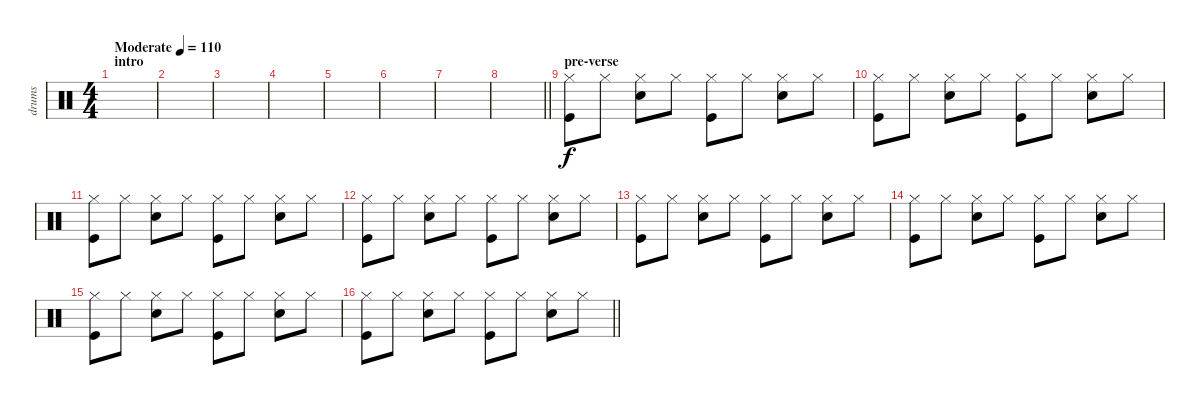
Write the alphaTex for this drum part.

\track ("drums" "drums") {instrument percussion}
\staff {score}
\articulation defaults
\ts (4 4)
\section ("" "intro")
\tempo (110 "Moderate")
\clef neutral
\ks c
|
|
|
|
|
|
|
\barLineRight lightlight
|
\section ("" "pre-verse")
("Hi-Hat (closed)" "Kick (hit)").8 "Hi-Hat (closed)".8 ("Hi-Hat (closed)" "Snare (hit) 2").8 "Hi-Hat (closed)".8 ("Hi-Hat (closed)" "Kick (hit)").8 "Hi-Hat (closed)".8 ("Hi-Hat (closed)" "Snare (hit) 2").8 "Hi-Hat (closed)".8 |
("Hi-Hat (closed)" "Kick (hit)").8 "Hi-Hat (closed)".8 ("Hi-Hat (closed)" "Snare (hit) 2").8 "Hi-Hat (closed)".8 ("Hi-Hat (closed)" "Kick (hit)").8 "Hi-Hat (closed)".8 ("Hi-Hat (closed)" "Snare (hit) 2").8 "Hi-Hat (closed)".8 |
("Hi-Hat (closed)" "Kick (hit)").8 "Hi-Hat (closed)".8 ("Hi-Hat (closed)" "Snare (hit) 2").8 "Hi-Hat (closed)".8 ("Hi-Hat (closed)" "Kick (hit)").8 "Hi-Hat (closed)".8 ("Hi-Hat (closed)" "Snare (hit) 2").8 "Hi-Hat (closed)".8 |
("Hi-Hat (closed)" "Kick (hit)").8 "Hi-Hat (closed)".8 ("Hi-Hat (closed)" "Snare (hit) 2").8 "Hi-Hat (closed)".8 ("Hi-Hat (closed)" "Kick (hit)").8 "Hi-Hat (closed)".8 ("Hi-Hat (closed)" "Snare (hit) 2").8 "Hi-Hat (closed)".8 |
("Hi-Hat (closed)" "Kick (hit)").8 "Hi-Hat (closed)".8 ("Hi-Hat (closed)" "Snare (hit) 2").8 "Hi-Hat (closed)".8 ("Hi-Hat (closed)" "Kick (hit)").8 "Hi-Hat (closed)".8 ("Hi-Hat (closed)" "Snare (hit) 2").8 "Hi-Hat (closed)".8 |
("Hi-Hat (closed)" "Kick (hit)").8 "Hi-Hat (closed)".8 ("Hi-Hat (closed)" "Snare (hit) 2").8 "Hi-Hat (closed)".8 ("Hi-Hat (closed)" "Kick (hit)").8 "Hi-Hat (closed)".8 ("Hi-Hat (closed)" "Snare (hit) 2").8 "Hi-Hat (closed)".8 |
("Hi-Hat (closed)" "Kick (hit)").8 "Hi-Hat (closed)".8 ("Hi-Hat (closed)" "Snare (hit) 2").8 "Hi-Hat (closed)".8 ("Hi-Hat (closed)" "Kick (hit)").8 "Hi-Hat (closed)".8 ("Hi-Hat (closed)" "Snare (hit) 2").8 "Hi-Hat (closed)".8 |
\barLineRight lightlight
("Hi-Hat (closed)" "Kick (hit)").8 "Hi-Hat (closed)".8 ("Hi-Hat (closed)" "Snare (hit) 2").8 "Hi-Hat (closed)".8 ("Hi-Hat (closed)" "Kick (hit)").8 "Hi-Hat (closed)".8 ("Hi-Hat (closed)" "Snare (hit) 2").8 "Hi-Hat (closed)".8
